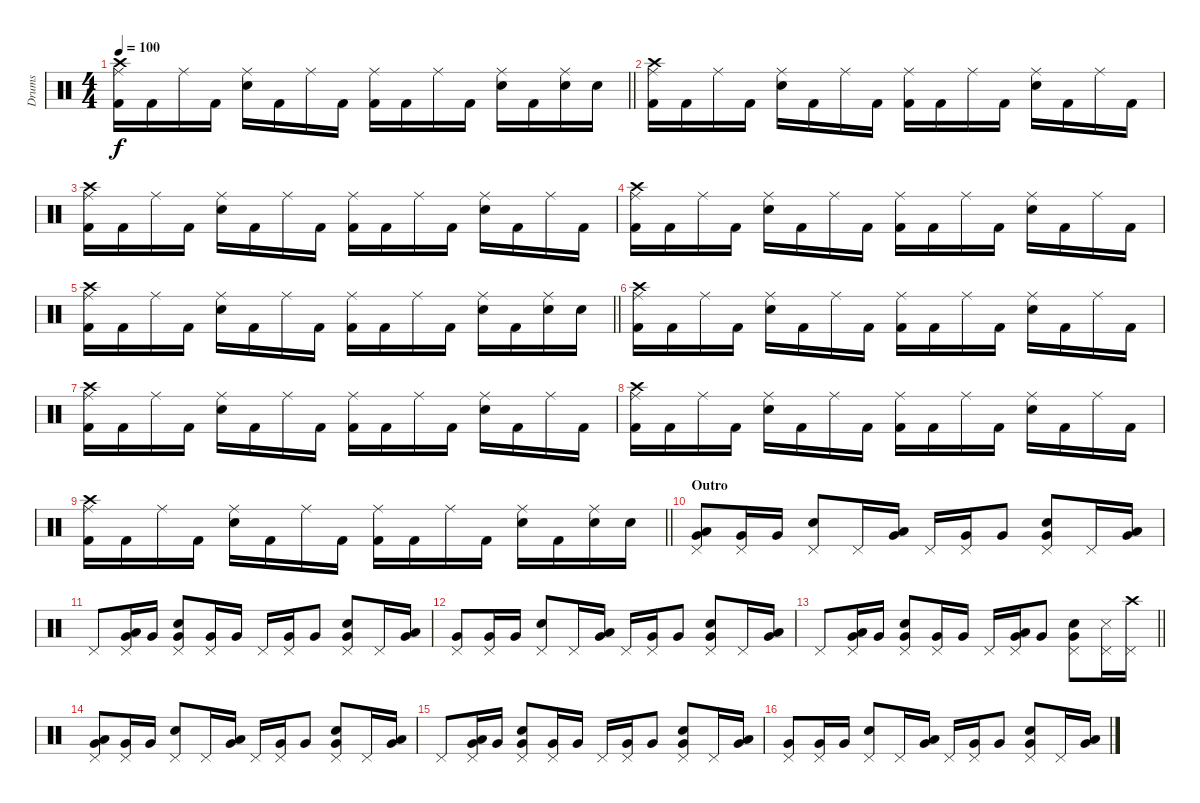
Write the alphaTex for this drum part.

\track ("Drums" "Drums") {instrument percussion}
\staff {score}
\articulation defaults
\ts (4 4)
\tempo 100
\clef neutral
\barLineRight lightlight
\ks c
("Crash high (hit)" "Kick (hit) 2" "Ride (middle)").16{dy f} "Kick (hit) 2".16 "Ride (middle)".16 "Kick (hit) 2".16 ("Snare (hit) 2" "Ride (middle)").16 "Kick (hit) 2".16 "Ride (middle)".16 "Kick (hit) 2".16 ("Kick (hit) 2" "Ride (middle)").16 "Kick (hit) 2".16 "Ride (middle)".16 "Kick (hit) 2".16 ("Snare (hit) 2" "Ride (middle)").16 "Kick (hit) 2".16 ("Snare (hit) 2" "Ride (middle)").16 "Snare (hit) 2".16 |
("Crash high (hit)" "Kick (hit) 2" "Ride (middle)").16 "Kick (hit) 2".16 "Ride (middle)".16 "Kick (hit) 2".16 ("Snare (hit) 2" "Ride (middle)").16 "Kick (hit) 2".16 "Ride (middle)".16 "Kick (hit) 2".16 ("Kick (hit) 2" "Ride (middle)").16 "Kick (hit) 2".16 "Ride (middle)".16 "Kick (hit) 2".16 ("Snare (hit) 2" "Ride (middle)").16 "Kick (hit) 2".16 "Ride (middle)".16 "Kick (hit) 2".16 |
("Crash high (hit)" "Kick (hit) 2" "Ride (middle)").16 "Kick (hit) 2".16 "Ride (middle)".16 "Kick (hit) 2".16 ("Snare (hit) 2" "Ride (middle)").16 "Kick (hit) 2".16 "Ride (middle)".16 "Kick (hit) 2".16 ("Kick (hit) 2" "Ride (middle)").16 "Kick (hit) 2".16 "Ride (middle)".16 "Kick (hit) 2".16 ("Snare (hit) 2" "Ride (middle)").16 "Kick (hit) 2".16 "Ride (middle)".16 "Kick (hit) 2".16 |
("Crash high (hit)" "Kick (hit) 2" "Ride (middle)").16 "Kick (hit) 2".16 "Ride (middle)".16 "Kick (hit) 2".16 ("Snare (hit) 2" "Ride (middle)").16 "Kick (hit) 2".16 "Ride (middle)".16 "Kick (hit) 2".16 ("Kick (hit) 2" "Ride (middle)").16 "Kick (hit) 2".16 "Ride (middle)".16 "Kick (hit) 2".16 ("Snare (hit) 2" "Ride (middle)").16 "Kick (hit) 2".16 "Ride (middle)".16 "Kick (hit) 2".16 |
\barLineRight lightlight
("Crash high (hit)" "Kick (hit) 2" "Ride (middle)").16 "Kick (hit) 2".16 "Ride (middle)".16 "Kick (hit) 2".16 ("Snare (hit) 2" "Ride (middle)").16 "Kick (hit) 2".16 "Ride (middle)".16 "Kick (hit) 2".16 ("Kick (hit) 2" "Ride (middle)").16 "Kick (hit) 2".16 "Ride (middle)".16 "Kick (hit) 2".16 ("Snare (hit) 2" "Ride (middle)").16 "Kick (hit) 2".16 ("Snare (hit) 2" "Ride (middle)").16 "Snare (hit) 2".16 |
("Crash high (hit)" "Kick (hit) 2" "Ride (middle)").16 "Kick (hit) 2".16 "Ride (middle)".16 "Kick (hit) 2".16 ("Snare (hit) 2" "Ride (middle)").16 "Kick (hit) 2".16 "Ride (middle)".16 "Kick (hit) 2".16 ("Kick (hit) 2" "Ride (middle)").16 "Kick (hit) 2".16 "Ride (middle)".16 "Kick (hit) 2".16 ("Snare (hit) 2" "Ride (middle)").16 "Kick (hit) 2".16 "Ride (middle)".16 "Kick (hit) 2".16 |
("Crash high (hit)" "Kick (hit) 2" "Ride (middle)").16 "Kick (hit) 2".16 "Ride (middle)".16 "Kick (hit) 2".16 ("Snare (hit) 2" "Ride (middle)").16 "Kick (hit) 2".16 "Ride (middle)".16 "Kick (hit) 2".16 ("Kick (hit) 2" "Ride (middle)").16 "Kick (hit) 2".16 "Ride (middle)".16 "Kick (hit) 2".16 ("Snare (hit) 2" "Ride (middle)").16 "Kick (hit) 2".16 "Ride (middle)".16 "Kick (hit) 2".16 |
("Crash high (hit)" "Kick (hit) 2" "Ride (middle)").16 "Kick (hit) 2".16 "Ride (middle)".16 "Kick (hit) 2".16 ("Snare (hit) 2" "Ride (middle)").16 "Kick (hit) 2".16 "Ride (middle)".16 "Kick (hit) 2".16 ("Kick (hit) 2" "Ride (middle)").16 "Kick (hit) 2".16 "Ride (middle)".16 "Kick (hit) 2".16 ("Snare (hit) 2" "Ride (middle)").16 "Kick (hit) 2".16 "Ride (middle)".16 "Kick (hit) 2".16 |
\barLineRight lightlight
("Crash high (hit)" "Kick (hit) 2" "Ride (middle)").16 "Kick (hit) 2".16 "Ride (middle)".16 "Kick (hit) 2".16 ("Snare (hit) 2" "Ride (middle)").16 "Kick (hit) 2".16 "Ride (middle)".16 "Kick (hit) 2".16 ("Kick (hit) 2" "Ride (middle)").16 "Kick (hit) 2".16 "Ride (middle)".16 "Kick (hit) 2".16 ("Snare (hit) 2" "Ride (middle)").16 "Kick (hit) 2".16 ("Snare (hit) 2" "Ride (middle)").16 "Snare (hit) 2".16 |
\section ("" "Outro")
("Low Floor Tom (hit)" "Very Low Tom (hit)" "Pedal Hi-Hat (hit)").8 ("Very Low Tom (hit)" "Pedal Hi-Hat (hit)").16 "Very Low Tom (hit)".16 ("Snare (hit) 2" "Pedal Hi-Hat (hit)").8 "Pedal Hi-Hat (hit)".16 ("Low Floor Tom (hit)" "Very Low Tom (hit)").16 "Pedal Hi-Hat (hit)".16 ("Very Low Tom (hit)" "Pedal Hi-Hat (hit)").16 "Very Low Tom (hit)".8 ("Snare (hit) 2" "Very Low Tom (hit)" "Pedal Hi-Hat (hit)").8 "Pedal Hi-Hat (hit)".16 ("Low Floor Tom (hit)" "Very Low Tom (hit)").16 |
"Pedal Hi-Hat (hit)".8 ("Low Floor Tom (hit)" "Very Low Tom (hit)" "Pedal Hi-Hat (hit)").16 "Very Low Tom (hit)".16 ("Snare (hit) 2" "Very Low Tom (hit)" "Pedal Hi-Hat (hit)").8 ("Very Low Tom (hit)" "Pedal Hi-Hat (hit)").16 "Very Low Tom (hit)".16 "Pedal Hi-Hat (hit)".16 ("Very Low Tom (hit)" "Pedal Hi-Hat (hit)").16 "Very Low Tom (hit)".8 ("Snare (hit) 2" "Very Low Tom (hit)" "Pedal Hi-Hat (hit)").8 "Pedal Hi-Hat (hit)".16 ("Low Floor Tom (hit)" "Very Low Tom (hit)").16 |
("Very Low Tom (hit)" "Pedal Hi-Hat (hit)").8 ("Very Low Tom (hit)" "Pedal Hi-Hat (hit)").16 "Very Low Tom (hit)".16 ("Snare (hit) 2" "Pedal Hi-Hat (hit)").8 "Pedal Hi-Hat (hit)".16 ("Low Floor Tom (hit)" "Very Low Tom (hit)").16 "Pedal Hi-Hat (hit)".16 ("Very Low Tom (hit)" "Pedal Hi-Hat (hit)").16 "Very Low Tom (hit)".8 ("Snare (hit) 2" "Very Low Tom (hit)" "Pedal Hi-Hat (hit)").8 "Pedal Hi-Hat (hit)".16 ("Low Floor Tom (hit)" "Very Low Tom (hit)").16 |
\barLineRight lightlight "Pedal Hi-Hat (hit)".8
("Low Floor Tom (hit)" "Very Low Tom (hit)" "Pedal Hi-Hat (hit)").16 "Very Low Tom (hit)".16 ("Snare (hit) 2" "Very Low Tom (hit)" "Pedal Hi-Hat (hit)").8 ("Very Low Tom (hit)" "Pedal Hi-Hat (hit)").16 "Very Low Tom (hit)".16 "Pedal Hi-Hat (hit)".16 ("Low Floor Tom (hit)" "Very Low Tom (hit)" "Pedal Hi-Hat (hit)").16 "Very Low Tom (hit)".8 ("Snare (hit) 2" "Very Low Tom (hit)" "Pedal Hi-Hat (hit)").8 ("Snare (side stick) 3" "Pedal Hi-Hat (hit)").16 ("Crash high (hit)" "Pedal Hi-Hat (hit)").16 |
("Low Floor Tom (hit)" "Very Low Tom (hit)" "Pedal Hi-Hat (hit)").8 ("Very Low Tom (hit)" "Pedal Hi-Hat (hit)").16 "Very Low Tom (hit)".16 ("Snare (hit) 2" "Pedal Hi-Hat (hit)").8 "Pedal Hi-Hat (hit)".16 ("Low Floor Tom (hit)" "Very Low Tom (hit)").16 "Pedal Hi-Hat (hit)".16 ("Very Low Tom (hit)" "Pedal Hi-Hat (hit)").16 "Very Low Tom (hit)".8 ("Snare (hit) 2" "Very Low Tom (hit)" "Pedal Hi-Hat (hit)").8 "Pedal Hi-Hat (hit)".16 ("Low Floor Tom (hit)" "Very Low Tom (hit)").16 |
"Pedal Hi-Hat (hit)".8 ("Low Floor Tom (hit)" "Very Low Tom (hit)" "Pedal Hi-Hat (hit)").16 "Very Low Tom (hit)".16 ("Snare (hit) 2" "Very Low Tom (hit)" "Pedal Hi-Hat (hit)").8 ("Very Low Tom (hit)" "Pedal Hi-Hat (hit)").16 "Very Low Tom (hit)".16 "Pedal Hi-Hat (hit)".16 ("Very Low Tom (hit)" "Pedal Hi-Hat (hit)").16 "Very Low Tom (hit)".8 ("Snare (hit) 2" "Very Low Tom (hit)" "Pedal Hi-Hat (hit)").8 "Pedal Hi-Hat (hit)".16 ("Low Floor Tom (hit)" "Very Low Tom (hit)").16 |
("Very Low Tom (hit)" "Pedal Hi-Hat (hit)").8 ("Very Low Tom (hit)" "Pedal Hi-Hat (hit)").16 "Very Low Tom (hit)".16 ("Snare (hit) 2" "Pedal Hi-Hat (hit)").8 "Pedal Hi-Hat (hit)".16 ("Low Floor Tom (hit)" "Very Low Tom (hit)").16 "Pedal Hi-Hat (hit)".16 ("Very Low Tom (hit)" "Pedal Hi-Hat (hit)").16 "Very Low Tom (hit)".8 ("Snare (hit) 2" "Very Low Tom (hit)" "Pedal Hi-Hat (hit)").8 "Pedal Hi-Hat (hit)".16 ("Low Floor Tom (hit)" "Very Low Tom (hit)").16
